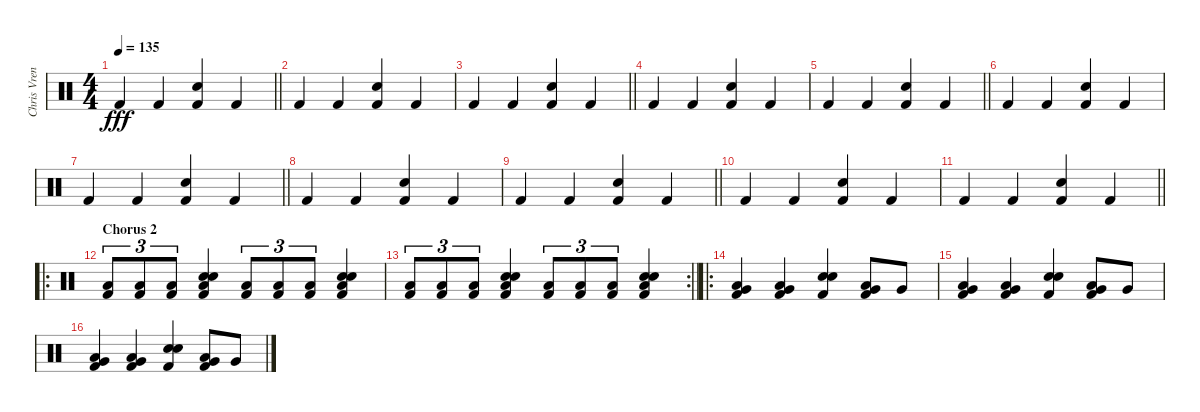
\track ("Chris Vrenna (percussions)" "Chris Vren") {instrument percussion}
\staff {score}
\articulation defaults
\ts (4 4)
\tempo 135
\clef neutral
\barLineRight lightlight
\ks c "Kick (hit) 2".4{dy fff} "Kick (hit) 2".4
("Snare (hit) 2" "Kick (hit) 2").4 "Kick (hit) 2".4 |
"Kick (hit) 2".4 "Kick (hit) 2".4 ("Snare (hit) 2" "Kick (hit) 2").4 "Kick (hit) 2".4 |
\barLineRight lightlight "Kick (hit) 2".4 "Kick (hit) 2".4
("Snare (hit) 2" "Kick (hit) 2").4 "Kick (hit) 2".4 |
"Kick (hit) 2".4 "Kick (hit) 2".4 ("Snare (hit) 2" "Kick (hit) 2").4 "Kick (hit) 2".4 |
\barLineRight lightlight "Kick (hit) 2".4 "Kick (hit) 2".4
("Snare (hit) 2" "Kick (hit) 2").4 "Kick (hit) 2".4 |
"Kick (hit) 2".4 "Kick (hit) 2".4 ("Snare (hit) 2" "Kick (hit) 2").4 "Kick (hit) 2".4 |
\barLineRight lightlight "Kick (hit) 2".4 "Kick (hit) 2".4
("Snare (hit) 2" "Kick (hit) 2").4 "Kick (hit) 2".4 |
"Kick (hit) 2".4 "Kick (hit) 2".4 ("Snare (hit) 2" "Kick (hit) 2").4 "Kick (hit) 2".4 |
\barLineRight lightlight "Kick (hit) 2".4 "Kick (hit) 2".4
("Snare (hit) 2" "Kick (hit) 2").4 "Kick (hit) 2".4 |
"Kick (hit) 2".4 "Kick (hit) 2".4 ("Snare (hit) 2" "Kick (hit) 2").4 "Kick (hit) 2".4 |
\barLineRight lightlight "Kick (hit) 2".4 "Kick (hit) 2".4
("Snare (hit) 2" "Kick (hit) 2").4 "Kick (hit) 2".4 |
\ro
\section ("" "Chorus 2")
("Low Tom (hit)" "Kick (hit) 2").8{tu (3 2)} ("Low Tom (hit)" "Kick (hit) 2").8{tu (3 2)} ("Low Tom (hit)" "Kick (hit) 2").8{tu (3 2)} ("Electric Snare (hit)" "Snare (hit) 2" "Low Tom (hit)" "Kick (hit) 2").4 ("Low Tom (hit)" "Kick (hit) 2").8{tu (3 2)} ("Low Tom (hit)" "Kick (hit) 2").8{tu (3 2)} ("Low Tom (hit)" "Kick (hit) 2").8{tu (3 2)} ("Electric Snare (hit)" "Snare (hit) 2" "Low Tom (hit)" "Kick (hit) 2").4 |
\rc 2
\barLineRight lightlight
("Low Tom (hit)" "Kick (hit) 2").8{tu (3 2)} ("Low Tom (hit)" "Kick (hit) 2").8{tu (3 2)} ("Low Tom (hit)" "Kick (hit) 2").8{tu (3 2)} ("Electric Snare (hit)" "Snare (hit) 2" "Low Tom (hit)" "Kick (hit) 2").4 ("Low Tom (hit)" "Kick (hit) 2").8{tu (3 2)} ("Low Tom (hit)" "Kick (hit) 2").8{tu (3 2)} ("Low Tom (hit)" "Kick (hit) 2").8{tu (3 2)} ("Electric Snare (hit)" "Snare (hit) 2" "Low Tom (hit)" "Kick (hit) 2").4 |
\ro
("Very Low Tom (hit)" "Low Tom (hit)" "Kick (hit) 2").4 ("Very Low Tom (hit)" "Low Tom (hit)" "Kick (hit) 2").4 ("Snare (hit) 2" "Electric Snare (hit)" "Kick (hit) 2").4 ("Very Low Tom (hit)" "Low Tom (hit)" "Kick (hit) 2").8 "Very Low Tom (hit)".8 |
("Very Low Tom (hit)" "Low Tom (hit)" "Kick (hit) 2").4 ("Very Low Tom (hit)" "Low Tom (hit)" "Kick (hit) 2").4 ("Snare (hit) 2" "Electric Snare (hit)" "Kick (hit) 2").4 ("Very Low Tom (hit)" "Low Tom (hit)" "Kick (hit) 2").8 "Very Low Tom (hit)".8 |
("Very Low Tom (hit)" "Low Tom (hit)" "Kick (hit) 2").4 ("Very Low Tom (hit)" "Low Tom (hit)" "Kick (hit) 2").4 ("Snare (hit) 2" "Electric Snare (hit)" "Kick (hit) 2").4 ("Very Low Tom (hit)" "Low Tom (hit)" "Kick (hit) 2").8 "Very Low Tom (hit)".8
